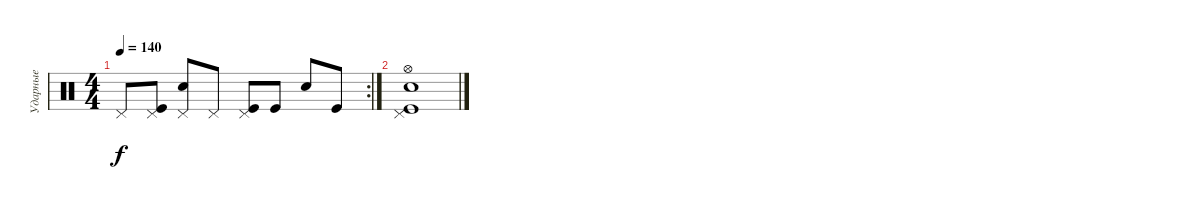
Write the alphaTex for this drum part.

\track ("Ударные" "Ударные") {instrument percussion}
\staff {score}
\articulation defaults
\rc 2
\ts (4 4)
\tempo 140
\clef neutral
\ks c "Pedal Hi-Hat (hit)".8{dy f}
("Pedal Hi-Hat (hit)" "Kick (hit)").8 ("Pedal Hi-Hat (hit)" "Snare (hit) 2").8 "Pedal Hi-Hat (hit)".8 ("Pedal Hi-Hat (hit)" "Kick (hit)").8 "Kick (hit)".8 "Snare (hit) 2".8 "Kick (hit)".8 |
("Kick (hit)" "Snare (hit) 2" "Pedal Hi-Hat (hit)" "Hi-Hat (open)").1
